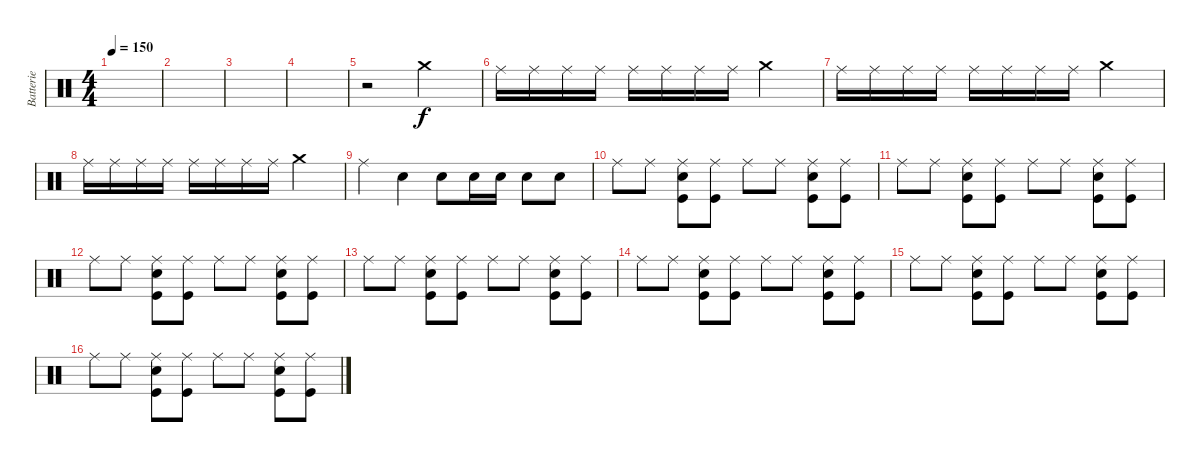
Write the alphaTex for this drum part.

\track ("Batterie" "Batterie") {instrument percussion}
\staff {score}
\articulation defaults
\ts (4 4)
\tempo 150
\clef neutral
\ks c
|
|
|
|
r.2 "Crash medium (hit)".2 |
"Ride (middle)".16 "Ride (middle)".16 "Ride (middle)".16 "Ride (middle)".16 "Ride (middle)".16 "Ride (middle)".16 "Ride (middle)".16 "Ride (middle)".16 "Crash medium (hit)".2 |
"Ride (middle)".16 "Ride (middle)".16 "Ride (middle)".16 "Ride (middle)".16 "Ride (middle)".16 "Ride (middle)".16 "Ride (middle)".16 "Ride (middle)".16 "Crash medium (hit)".2 |
"Ride (middle)".16 "Ride (middle)".16 "Ride (middle)".16 "Ride (middle)".16 "Ride (middle)".16 "Ride (middle)".16 "Ride (middle)".16 "Ride (middle)".16 "Crash medium (hit)".2 |
"Ride (middle)".4 "Electric Snare (hit)".4 "Electric Snare (hit)".8 "Electric Snare (hit)".16 "Electric Snare (hit)".16 "Electric Snare (hit)".8 "Electric Snare (hit)".8 |
"Ride (middle)".8 "Ride (middle)".8 ("Ride (middle)" "Kick (hit)" "Electric Snare (hit)").8 ("Ride (middle)" "Kick (hit)").8 "Ride (middle)".8 "Ride (middle)".8 ("Ride (middle)" "Kick (hit)" "Electric Snare (hit)").8 ("Ride (middle)" "Kick (hit)").8 |
"Ride (middle)".8 "Ride (middle)".8 ("Ride (middle)" "Kick (hit)" "Electric Snare (hit)").8 ("Ride (middle)" "Kick (hit)").8 "Ride (middle)".8 "Ride (middle)".8 ("Ride (middle)" "Kick (hit)" "Electric Snare (hit)").8 ("Ride (middle)" "Kick (hit)").8 |
"Ride (middle)".8 "Ride (middle)".8 ("Ride (middle)" "Kick (hit)" "Electric Snare (hit)").8 ("Ride (middle)" "Kick (hit)").8 "Ride (middle)".8 "Ride (middle)".8 ("Ride (middle)" "Kick (hit)" "Electric Snare (hit)").8 ("Ride (middle)" "Kick (hit)").8 |
"Ride (middle)".8 "Ride (middle)".8 ("Ride (middle)" "Kick (hit)" "Electric Snare (hit)").8 ("Ride (middle)" "Kick (hit)").8 "Ride (middle)".8 "Ride (middle)".8 ("Ride (middle)" "Kick (hit)" "Electric Snare (hit)").8 ("Ride (middle)" "Kick (hit)").8 |
"Ride (middle)".8 "Ride (middle)".8 ("Ride (middle)" "Kick (hit)" "Electric Snare (hit)").8 ("Ride (middle)" "Kick (hit)").8 "Ride (middle)".8 "Ride (middle)".8 ("Ride (middle)" "Kick (hit)" "Electric Snare (hit)").8 ("Ride (middle)" "Kick (hit)").8 |
"Ride (middle)".8 "Ride (middle)".8 ("Ride (middle)" "Kick (hit)" "Electric Snare (hit)").8 ("Ride (middle)" "Kick (hit)").8 "Ride (middle)".8 "Ride (middle)".8 ("Ride (middle)" "Kick (hit)" "Electric Snare (hit)").8 ("Ride (middle)" "Kick (hit)").8 |
"Ride (middle)".8 "Ride (middle)".8 ("Ride (middle)" "Kick (hit)" "Electric Snare (hit)").8 ("Ride (middle)" "Kick (hit)").8 "Ride (middle)".8 "Ride (middle)".8 ("Ride (middle)" "Kick (hit)" "Electric Snare (hit)").8 ("Ride (middle)" "Kick (hit)").8
